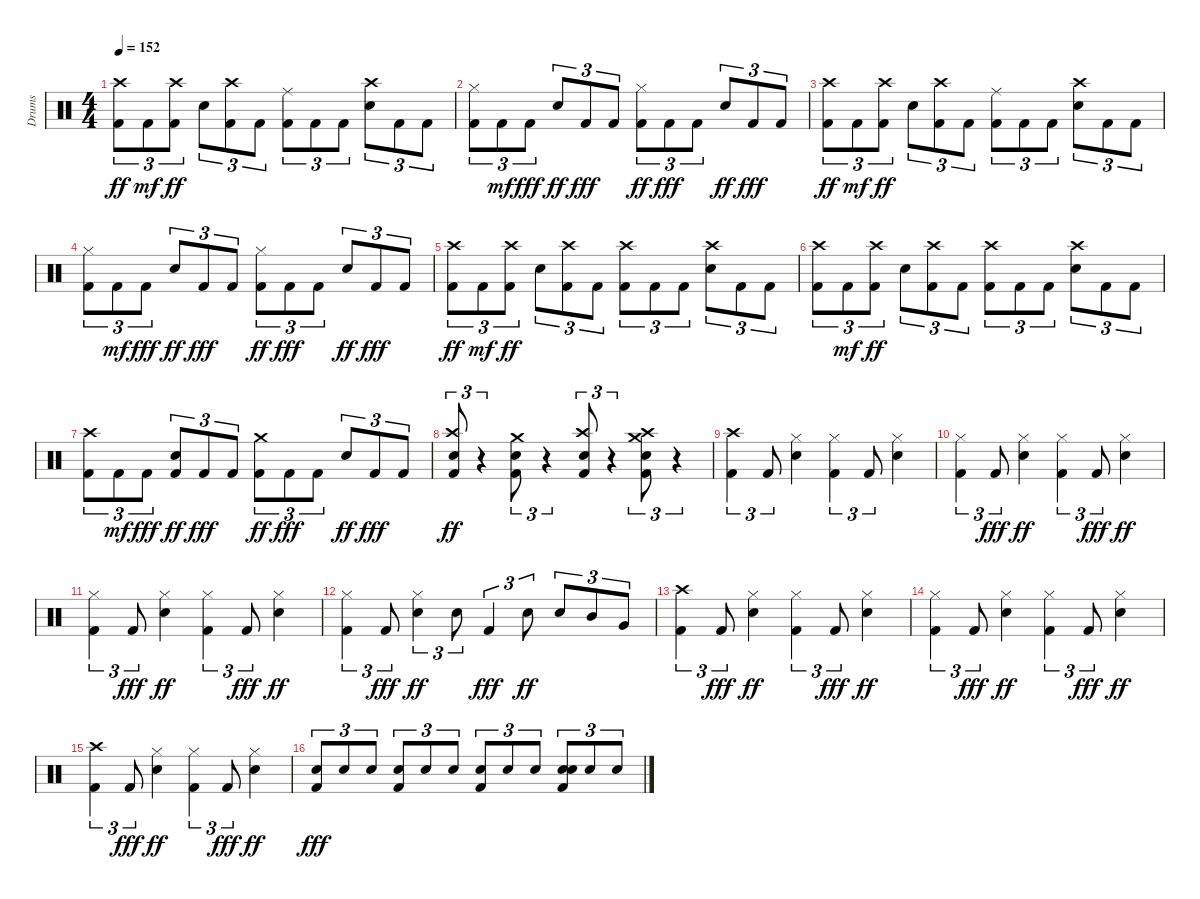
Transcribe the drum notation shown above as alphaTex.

\track ("Drums" "Drums") {instrument percussion}
\staff {score}
\articulation defaults
\ts (4 4)
\tempo 152
\clef neutral
\ks c
("Kick (hit) 2" "Crash high (hit)").8{tu (3 2) dy ff} "Kick (hit) 2".8{tu (3 2) dy mf} ("Kick (hit) 2" "Crash high (hit)").8{tu (3 2) dy ff} "Snare (hit) 2".8{tu (3 2)} ("Kick (hit) 2" "Crash high (hit)").8{tu (3 2)} "Kick (hit) 2".8{tu (3 2)} ("Kick (hit) 2" "Ride (middle)").8{tu (3 2)} "Kick (hit) 2".8{tu (3 2)} "Kick (hit) 2".8{tu (3 2)} ("Snare (hit) 2" "Crash high (hit)").8{tu (3 2)} "Kick (hit) 2".8{tu (3 2)} "Kick (hit) 2".8{tu (3 2)} |
("Kick (hit) 2" "Hi-Hat (closed)").8{tu (3 2)} "Kick (hit) 2".8{tu (3 2) dy mf} "Kick (hit) 2".8{tu (3 2) dy fff} "Snare (hit) 2".8{tu (3 2) dy ff} "Kick (hit) 2".8{tu (3 2) dy fff} "Kick (hit) 2".8{tu (3 2)} ("Kick (hit) 2" "Hi-Hat (closed)").8{tu (3 2) dy ff} "Kick (hit) 2".8{tu (3 2) dy fff} "Kick (hit) 2".8{tu (3 2)} "Snare (hit) 2".8{tu (3 2) dy ff} "Kick (hit) 2".8{tu (3 2) dy fff} "Kick (hit) 2".8{tu (3 2)} |
("Kick (hit) 2" "Crash high (hit)").8{tu (3 2) dy ff} "Kick (hit) 2".8{tu (3 2) dy mf} ("Kick (hit) 2" "Crash high (hit)").8{tu (3 2) dy ff} "Snare (hit) 2".8{tu (3 2)} ("Kick (hit) 2" "Crash high (hit)").8{tu (3 2)} "Kick (hit) 2".8{tu (3 2)} ("Kick (hit) 2" "Ride (middle)").8{tu (3 2)} "Kick (hit) 2".8{tu (3 2)} "Kick (hit) 2".8{tu (3 2)} ("Snare (hit) 2" "Crash high (hit)").8{tu (3 2)} "Kick (hit) 2".8{tu (3 2)} "Kick (hit) 2".8{tu (3 2)} |
("Kick (hit) 2" "Hi-Hat (closed)").8{tu (3 2)} "Kick (hit) 2".8{tu (3 2) dy mf} "Kick (hit) 2".8{tu (3 2) dy fff} "Snare (hit) 2".8{tu (3 2) dy ff} "Kick (hit) 2".8{tu (3 2) dy fff} "Kick (hit) 2".8{tu (3 2)} ("Kick (hit) 2" "Hi-Hat (closed)").8{tu (3 2) dy ff} "Kick (hit) 2".8{tu (3 2) dy fff} "Kick (hit) 2".8{tu (3 2)} "Snare (hit) 2".8{tu (3 2) dy ff} "Kick (hit) 2".8{tu (3 2) dy fff} "Kick (hit) 2".8{tu (3 2)} |
("Kick (hit) 2" "Crash high (hit)").8{tu (3 2) dy ff} "Kick (hit) 2".8{tu (3 2) dy mf} ("Kick (hit) 2" "Crash high (hit)").8{tu (3 2) dy ff} "Snare (hit) 2".8{tu (3 2)} ("Kick (hit) 2" "Crash high (hit)").8{tu (3 2)} "Kick (hit) 2".8{tu (3 2)} ("Kick (hit) 2" "Crash high (hit)").8{tu (3 2)} "Kick (hit) 2".8{tu (3 2)} "Kick (hit) 2".8{tu (3 2)} ("Snare (hit) 2" "Crash high (hit)").8{tu (3 2)} "Kick (hit) 2".8{tu (3 2)} "Kick (hit) 2".8{tu (3 2)} |
("Kick (hit) 2" "Crash high (hit)").8{tu (3 2)} "Kick (hit) 2".8{tu (3 2) dy mf} ("Kick (hit) 2" "Crash high (hit)").8{tu (3 2) dy ff} "Snare (hit) 2".8{tu (3 2)} ("Kick (hit) 2" "Crash high (hit)").8{tu (3 2)} "Kick (hit) 2".8{tu (3 2)} ("Kick (hit) 2" "Crash high (hit)").8{tu (3 2)} "Kick (hit) 2".8{tu (3 2)} "Kick (hit) 2".8{tu (3 2)} ("Snare (hit) 2" "Crash high (hit)").8{tu (3 2)} "Kick (hit) 2".8{tu (3 2)} "Kick (hit) 2".8{tu (3 2)} |
("Kick (hit) 2" "Crash high (hit)").8{tu (3 2)} "Kick (hit) 2".8{tu (3 2) dy mf} "Kick (hit) 2".8{tu (3 2) dy fff} ("Kick (hit) 2" "Snare (hit) 2").8{tu (3 2) dy ff} "Kick (hit) 2".8{tu (3 2) dy fff} "Kick (hit) 2".8{tu (3 2)} ("Kick (hit) 2" "Crash medium (hit)").8{tu (3 2) dy ff} "Kick (hit) 2".8{tu (3 2) dy fff} "Kick (hit) 2".8{tu (3 2)} "Snare (hit) 2".8{tu (3 2) dy ff} "Kick (hit) 2".8{tu (3 2) dy fff} "Kick (hit) 2".8{tu (3 2)} |
("Kick (hit) 2" "Snare (hit) 2" "Crash high (hit)").8{tu (3 2) dy ff} r.4{tu (3 2)} ("Kick (hit) 2" "Snare (hit) 2" "Crash medium (hit)").8{tu (3 2)} r.4{tu (3 2)} ("Kick (hit) 2" "Snare (hit) 2" "Crash high (hit)").8{tu (3 2)} r.4{tu (3 2)} ("Kick (hit) 2" "Crash high (hit)" "Snare (hit) 2" "Crash medium (hit)").8{tu (3 2)} r.4{tu (3 2)} |
("Kick (hit) 2" "Crash high (hit)").4{tu (3 2)} "Kick (hit) 2".8{tu (3 2)} ("Snare (hit) 2" "Hi-Hat (closed)").4 ("Kick (hit) 2" "Hi-Hat (closed)").4{tu (3 2)} "Kick (hit) 2".8{tu (3 2)} ("Snare (hit) 2" "Hi-Hat (closed)").4 |
("Kick (hit) 2" "Hi-Hat (closed)").4{tu (3 2)} "Kick (hit) 2".8{tu (3 2) dy fff} ("Snare (hit) 2" "Hi-Hat (closed)").4{dy ff} ("Kick (hit) 2" "Hi-Hat (closed)").4{tu (3 2)} "Kick (hit) 2".8{tu (3 2) dy fff} ("Snare (hit) 2" "Hi-Hat (closed)").4{dy ff} |
("Kick (hit) 2" "Hi-Hat (closed)").4{tu (3 2)} "Kick (hit) 2".8{tu (3 2) dy fff} ("Snare (hit) 2" "Hi-Hat (closed)").4{dy ff} ("Kick (hit) 2" "Hi-Hat (closed)").4{tu (3 2)} "Kick (hit) 2".8{tu (3 2) dy fff} ("Snare (hit) 2" "Hi-Hat (closed)").4{dy ff} |
("Kick (hit) 2" "Hi-Hat (closed)").4{tu (3 2)} "Kick (hit) 2".8{tu (3 2) dy fff} ("Snare (hit) 2" "Hi-Hat (closed)").4{tu (3 2) dy ff} "Snare (hit) 2".8{tu (3 2)} "Kick (hit) 2".4{tu (3 2) dy fff} "Snare (hit) 2".8{tu (3 2) dy ff} "Snare (hit) 2".8{tu (3 2)} "Mid Tom (hit)".8{tu (3 2)} "Very Low Tom (hit)".8{tu (3 2)} |
("Kick (hit) 2" "Crash high (hit)").4{tu (3 2)} "Kick (hit) 2".8{tu (3 2) dy fff} ("Snare (hit) 2" "Hi-Hat (closed)").4{dy ff} ("Kick (hit) 2" "Hi-Hat (closed)").4{tu (3 2)} "Kick (hit) 2".8{tu (3 2) dy fff} ("Snare (hit) 2" "Hi-Hat (closed)").4{dy ff} |
("Kick (hit) 2" "Hi-Hat (closed)").4{tu (3 2)} "Kick (hit) 2".8{tu (3 2) dy fff} ("Snare (hit) 2" "Hi-Hat (closed)").4{dy ff} ("Kick (hit) 2" "Hi-Hat (closed)").4{tu (3 2)} "Kick (hit) 2".8{tu (3 2) dy fff} ("Snare (hit) 2" "Hi-Hat (closed)").4{dy ff} |
("Kick (hit) 2" "Crash high (hit)").4{tu (3 2)} "Kick (hit) 2".8{tu (3 2) dy fff} ("Snare (hit) 2" "Hi-Hat (closed)").4{dy ff} ("Kick (hit) 2" "Hi-Hat (closed)").4{tu (3 2)} "Kick (hit) 2".8{tu (3 2) dy fff} ("Snare (hit) 2" "Hi-Hat (closed)").4{dy ff} |
("Kick (hit) 2" "Snare (hit) 2").8{tu (3 2) dy fff} "Snare (hit) 2".8{tu (3 2)} "Snare (hit) 2".8{tu (3 2)} ("Kick (hit) 2" "Snare (hit) 2").8{tu (3 2)} "Snare (hit) 2".8{tu (3 2)} "Snare (hit) 2".8{tu (3 2)} ("Kick (hit) 2" "Snare (hit) 2").8{tu (3 2)} "Snare (hit) 2".8{tu (3 2)} "Snare (hit) 2".8{tu (3 2)} ("Kick (hit) 2" "Snare (hit) 2" "Snare (hit) 2").8{tu (3 2)} "Snare (hit) 2".8{tu (3 2)} "Snare (hit) 2".8{tu (3 2)}
